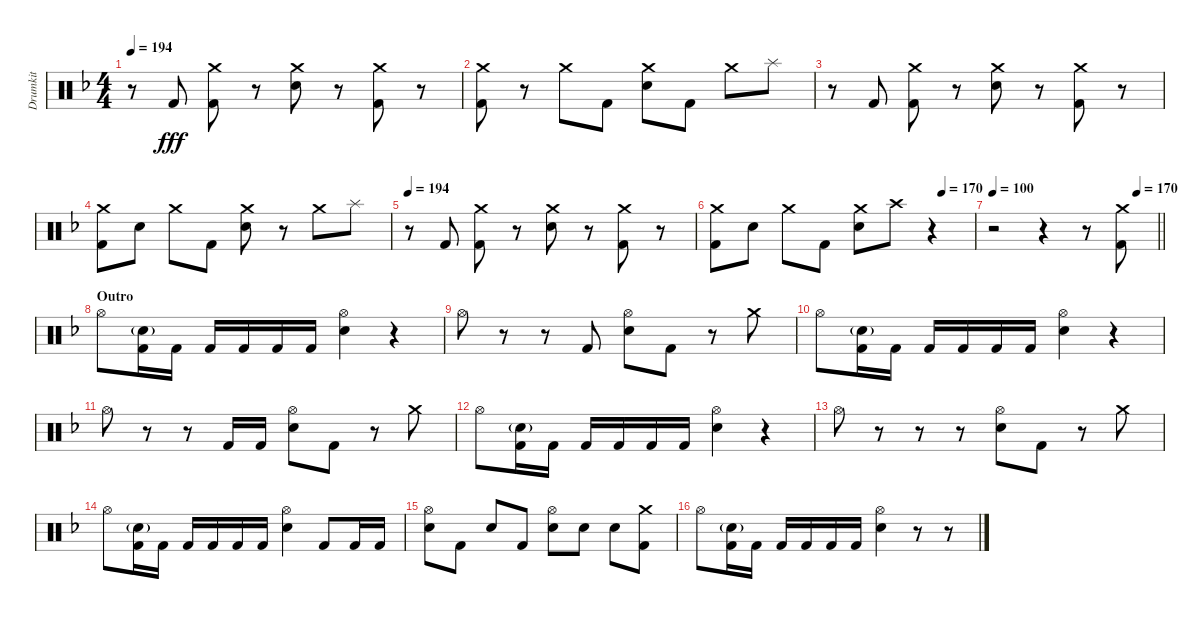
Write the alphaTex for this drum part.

\track ("Drumkit" "Drumkit") {instrument percussion}
\staff {score}
\articulation defaults
\ts (4 4)
\tempo 194
\clef neutral
\ks f
r.8{dy fff} "Kick (hit) 2".8 ("Crash medium (hit)" "Kick (hit) 2").8 r.8 ("Crash medium (hit)" "Snare (hit) 2").8 r.8 ("Crash medium (hit)" "Kick (hit) 2").8 r.8 |
("Crash medium (hit)" "Kick (hit) 2").8 r.8 "Crash medium (hit)".8 "Kick (hit) 2".8 ("Crash medium (hit)" "Snare (hit) 2").8 "Kick (hit) 2".8 "Crash medium (hit)".8 "Splash (hit)".8 |
r.8 "Kick (hit) 2".8 ("Crash medium (hit)" "Kick (hit) 2").8 r.8 ("Crash medium (hit)" "Snare (hit) 2").8 r.8 ("Crash medium (hit)" "Kick (hit) 2").8 r.8 |
("Crash medium (hit)" "Kick (hit) 2").8 "Snare (hit) 2".8 "Crash medium (hit)".8 "Kick (hit) 2".8 ("Crash medium (hit)" "Snare (hit) 2").8 r.8 "Crash medium (hit)".8 "Splash (hit)".8 |
\tempo 194
r.8 "Kick (hit) 2".8 ("Crash medium (hit)" "Kick (hit) 2").8 r.8 ("Crash medium (hit)" "Snare (hit) 2").8 r.8 ("Crash medium (hit)" "Kick (hit) 2").8 r.8 |
\tempo (170 0.875)
("Crash medium (hit)" "Kick (hit) 2").8 "Snare (hit) 2".8 "Crash medium (hit)".8 "Kick (hit) 2".8 ("Crash medium (hit)" "Snare (hit) 2").8 "Crash high (hit)".8 r.4 |
\tempo 100
\tempo (170 0.875)
\barLineRight lightlight
r.2 r.4 r.8 ("Crash medium (hit)" "Kick (hit) 2").8 |
\section ("" "Outro")
"Hi-Hat (open)".8 ("Snare (hit) 2"{g} "Kick (hit) 2").16 "Kick (hit) 2".16 "Kick (hit) 2".16 "Kick (hit) 2".16 "Kick (hit) 2".16 "Kick (hit) 2".16 ("Hi-Hat (open)" "Snare (hit) 2").4 r.4 |
"Hi-Hat (open)".8 r.8 r.8 "Kick (hit) 2".8 ("Hi-Hat (open)" "Snare (hit) 2").8 "Kick (hit) 2".8 r.8 "Crash medium (hit)".8 |
"Hi-Hat (open)".8 ("Snare (hit) 2"{g} "Kick (hit) 2").16 "Kick (hit) 2".16 "Kick (hit) 2".16 "Kick (hit) 2".16 "Kick (hit) 2".16 "Kick (hit) 2".16 ("Hi-Hat (open)" "Snare (hit) 2").4 r.4 |
"Hi-Hat (open)".8 r.8 r.8 "Kick (hit) 2".16 "Kick (hit) 2".16 ("Hi-Hat (open)" "Snare (hit) 2").8 "Kick (hit) 2".8 r.8 "Crash medium (hit)".8 |
"Hi-Hat (open)".8 ("Snare (hit) 2"{g} "Kick (hit) 2").16 "Kick (hit) 2".16 "Kick (hit) 2".16 "Kick (hit) 2".16 "Kick (hit) 2".16 "Kick (hit) 2".16 ("Hi-Hat (open)" "Snare (hit) 2").4 r.4 |
"Hi-Hat (open)".8 r.8 r.8 r.8 ("Hi-Hat (open)" "Snare (hit) 2").8 "Kick (hit) 2".8 r.8 "Crash medium (hit)".8 |
"Hi-Hat (open)".8 ("Snare (hit) 2"{g} "Kick (hit) 2").16 "Kick (hit) 2".16 "Kick (hit) 2".16 "Kick (hit) 2".16 "Kick (hit) 2".16 "Kick (hit) 2".16 ("Hi-Hat (open)" "Snare (hit) 2").4 "Kick (hit) 2".8 "Kick (hit) 2".16 "Kick (hit) 2".16 |
("Hi-Hat (open)" "Snare (hit) 2").8 "Kick (hit) 2".8 "Snare (hit) 2".8 "Kick (hit) 2".8 ("Hi-Hat (open)" "Snare (hit) 2").8 "Snare (hit) 2".8 "Snare (hit) 2".8 ("Crash medium (hit)" "Kick (hit) 2").8 |
"Hi-Hat (open)".8 ("Snare (hit) 2"{g} "Kick (hit) 2").16 "Kick (hit) 2".16 "Kick (hit) 2".16 "Kick (hit) 2".16 "Kick (hit) 2".16 "Kick (hit) 2".16 ("Hi-Hat (open)" "Snare (hit) 2").4 r.8 r.8
